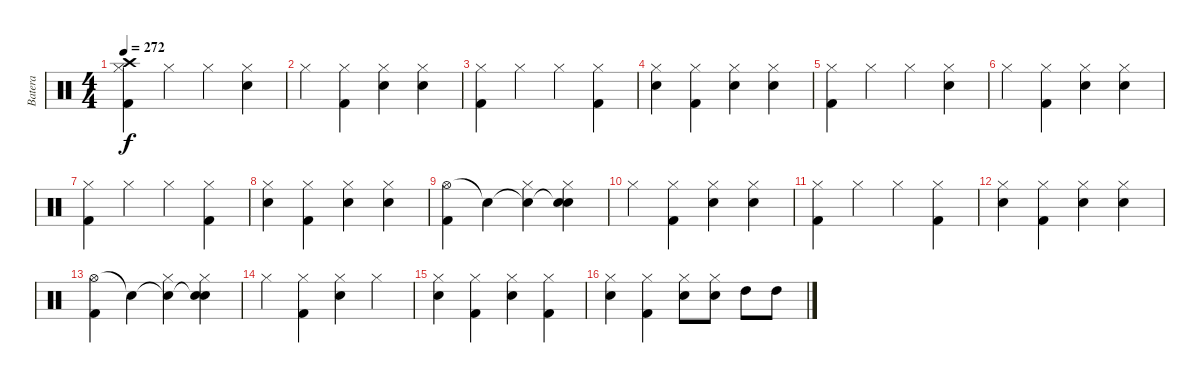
\track ("Batera" "Batera") {instrument percussion}
\staff {score}
\articulation defaults
\ts (4 4)
\tempo 272
\clef neutral
\ks c
("Crash high (hit)" "Hi-Hat (closed)" "Kick (hit) 2").4{dy f} "Hi-Hat (closed)".4 "Hi-Hat (closed)".4 ("Hi-Hat (closed)" "Electric Snare (hit)").4 |
"Hi-Hat (closed)".4 ("Hi-Hat (closed)" "Kick (hit) 2").4 ("Hi-Hat (closed)" "Electric Snare (hit)").4 ("Hi-Hat (closed)" "Electric Snare (hit)").4 |
("Hi-Hat (closed)" "Kick (hit) 2").4 "Hi-Hat (closed)".4 "Hi-Hat (closed)".4 ("Hi-Hat (closed)" "Kick (hit) 2").4 |
("Hi-Hat (closed)" "Electric Snare (hit)").4 ("Hi-Hat (closed)" "Kick (hit) 2").4 ("Hi-Hat (closed)" "Electric Snare (hit)").4 ("Hi-Hat (closed)" "Electric Snare (hit)").4 |
("Hi-Hat (closed)" "Kick (hit) 2").4 "Hi-Hat (closed)".4 "Hi-Hat (closed)".4 ("Hi-Hat (closed)" "Electric Snare (hit)").4 |
"Hi-Hat (closed)".4 ("Hi-Hat (closed)" "Kick (hit) 2").4 ("Hi-Hat (closed)" "Electric Snare (hit)").4 ("Hi-Hat (closed)" "Electric Snare (hit)").4 |
("Hi-Hat (closed)" "Kick (hit) 2").4 "Hi-Hat (closed)".4 "Hi-Hat (closed)".4 ("Hi-Hat (closed)" "Kick (hit) 2").4 |
("Hi-Hat (closed)" "Electric Snare (hit)").4 ("Hi-Hat (closed)" "Kick (hit) 2").4 ("Hi-Hat (closed)" "Electric Snare (hit)").4 ("Hi-Hat (closed)" "Electric Snare (hit)").4 |
("Hi-Hat (open)" "Kick (hit) 2").4 "Snare (hit)"{t}.4 ("Snare (hit)"{t} "Hi-Hat (closed)").4 ("Snare (hit)"{t} "Hi-Hat (closed)" "Electric Snare (hit)").4 |
"Hi-Hat (closed)".4 ("Hi-Hat (closed)" "Kick (hit) 2").4 ("Hi-Hat (closed)" "Electric Snare (hit)").4 ("Hi-Hat (closed)" "Electric Snare (hit)").4 |
("Hi-Hat (closed)" "Kick (hit) 2").4 "Hi-Hat (closed)".4 "Hi-Hat (closed)".4 ("Hi-Hat (closed)" "Kick (hit) 2").4 |
("Hi-Hat (closed)" "Electric Snare (hit)").4 ("Hi-Hat (closed)" "Kick (hit) 2").4 ("Hi-Hat (closed)" "Electric Snare (hit)").4 ("Hi-Hat (closed)" "Electric Snare (hit)").4 |
("Hi-Hat (open)" "Kick (hit) 2").4 "Snare (hit)"{t}.4 ("Snare (hit)"{t} "Hi-Hat (closed)").4 ("Snare (hit)"{t} "Hi-Hat (closed)" "Electric Snare (hit)").4 |
"Hi-Hat (closed)".4 ("Hi-Hat (closed)" "Kick (hit) 2").4 ("Hi-Hat (closed)" "Electric Snare (hit)").4 "Hi-Hat (closed)".4 |
("Hi-Hat (closed)" "Electric Snare (hit)").4 ("Hi-Hat (closed)" "Kick (hit) 2").4 ("Hi-Hat (closed)" "Electric Snare (hit)").4 ("Hi-Hat (closed)" "Kick (hit) 2").4 |
("Hi-Hat (closed)" "Electric Snare (hit)").4 ("Hi-Hat (closed)" "Kick (hit) 2").4 ("Hi-Hat (closed)" "Electric Snare (hit)").8 ("Hi-Hat (closed)" "Electric Snare (hit)").8 "High Tom (hit)".8 "High Tom (hit)".8
